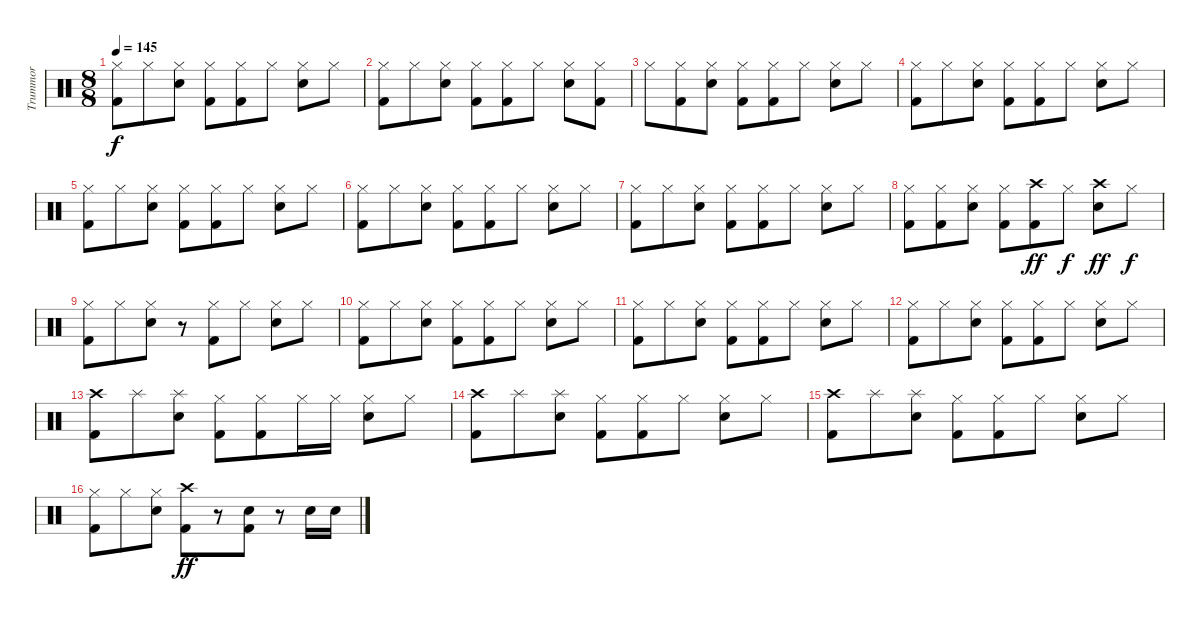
\track ("Trummor" "Trummor") {instrument percussion}
\staff {score}
\articulation defaults
\ts (8 8)
\tempo 145
\clef neutral
\ks c
("Kick (hit) 2" "Hi-Hat (closed)").8{dy f} "Hi-Hat (closed)".8 ("Snare (hit) 2" "Hi-Hat (closed)").8 ("Kick (hit) 2" "Hi-Hat (closed)").8 ("Kick (hit) 2" "Hi-Hat (closed)").8 "Hi-Hat (closed)".8 ("Snare (hit) 2" "Hi-Hat (closed)").8 "Hi-Hat (closed)".8 |
("Kick (hit) 2" "Hi-Hat (closed)").8 "Hi-Hat (closed)".8 ("Snare (hit) 2" "Hi-Hat (closed)").8 ("Kick (hit) 2" "Hi-Hat (closed)").8 ("Kick (hit) 2" "Hi-Hat (closed)").8 "Hi-Hat (closed)".8 ("Snare (hit) 2" "Hi-Hat (closed)").8 ("Kick (hit) 2" "Hi-Hat (closed)").8 |
"Hi-Hat (closed)".8 ("Kick (hit) 2" "Hi-Hat (closed)").8 ("Snare (hit) 2" "Hi-Hat (closed)").8 ("Kick (hit) 2" "Hi-Hat (closed)").8 ("Kick (hit) 2" "Hi-Hat (closed)").8 "Hi-Hat (closed)".8 ("Snare (hit) 2" "Hi-Hat (closed)").8 "Hi-Hat (closed)".8 |
("Kick (hit) 2" "Hi-Hat (closed)").8 "Hi-Hat (closed)".8 ("Snare (hit) 2" "Hi-Hat (closed)").8 ("Kick (hit) 2" "Hi-Hat (closed)").8 ("Kick (hit) 2" "Hi-Hat (closed)").8 "Hi-Hat (closed)".8 ("Snare (hit) 2" "Hi-Hat (closed)").8 "Hi-Hat (closed)".8 |
("Kick (hit) 2" "Hi-Hat (closed)").8 "Hi-Hat (closed)".8 ("Snare (hit) 2" "Hi-Hat (closed)").8 ("Kick (hit) 2" "Hi-Hat (closed)").8 ("Kick (hit) 2" "Hi-Hat (closed)").8 "Hi-Hat (closed)".8 ("Snare (hit) 2" "Hi-Hat (closed)").8 "Hi-Hat (closed)".8 |
("Kick (hit) 2" "Hi-Hat (closed)").8 "Hi-Hat (closed)".8 ("Snare (hit) 2" "Hi-Hat (closed)").8 ("Kick (hit) 2" "Hi-Hat (closed)").8 ("Kick (hit) 2" "Hi-Hat (closed)").8 "Hi-Hat (closed)".8 ("Snare (hit) 2" "Hi-Hat (closed)").8 "Hi-Hat (closed)".8 |
("Kick (hit) 2" "Hi-Hat (closed)").8 "Hi-Hat (closed)".8 ("Snare (hit) 2" "Hi-Hat (closed)").8 ("Kick (hit) 2" "Hi-Hat (closed)").8 ("Kick (hit) 2" "Hi-Hat (closed)").8 "Hi-Hat (closed)".8 ("Snare (hit) 2" "Hi-Hat (closed)").8 "Hi-Hat (closed)".8 |
("Kick (hit) 2" "Hi-Hat (closed)").8 ("Kick (hit) 2" "Hi-Hat (closed)").8 ("Snare (hit) 2" "Hi-Hat (closed)").8 ("Kick (hit) 2" "Hi-Hat (closed)").8 ("Kick (hit) 2" "Crash high (hit)").8{dy ff} "Hi-Hat (closed)".8{dy f} ("Snare (hit) 2" "Crash high (hit)").8{dy ff} "Hi-Hat (closed)".8{dy f} |
("Kick (hit) 2" "Hi-Hat (closed)").8 "Hi-Hat (closed)".8 ("Snare (hit) 2" "Hi-Hat (closed)").8 r.8 ("Kick (hit) 2" "Hi-Hat (closed)").8 "Hi-Hat (closed)".8 ("Snare (hit) 2" "Hi-Hat (closed)").8 "Hi-Hat (closed)".8 |
("Kick (hit) 2" "Hi-Hat (closed)").8 "Hi-Hat (closed)".8 ("Snare (hit) 2" "Hi-Hat (closed)").8 ("Kick (hit) 2" "Hi-Hat (closed)").8 ("Kick (hit) 2" "Hi-Hat (closed)").8 "Hi-Hat (closed)".8 ("Snare (hit) 2" "Hi-Hat (closed)").8 "Hi-Hat (closed)".8 |
("Kick (hit) 2" "Hi-Hat (closed)").8 "Hi-Hat (closed)".8 ("Snare (hit) 2" "Hi-Hat (closed)").8 ("Kick (hit) 2" "Hi-Hat (closed)").8 ("Kick (hit) 2" "Hi-Hat (closed)").8 "Hi-Hat (closed)".8 ("Snare (hit) 2" "Hi-Hat (closed)").8 "Hi-Hat (closed)".8 |
("Kick (hit) 2" "Hi-Hat (closed)").8 "Hi-Hat (closed)".8 ("Snare (hit) 2" "Hi-Hat (closed)").8 ("Kick (hit) 2" "Hi-Hat (closed)").8 ("Kick (hit) 2" "Hi-Hat (closed)").8 "Hi-Hat (closed)".8 ("Snare (hit) 2" "Hi-Hat (closed)").8 "Hi-Hat (closed)".8 |
("Kick (hit) 2" "Crash high (hit)").8 "Splash (hit)".8 ("Snare (hit) 2" "Splash (hit)").8 ("Kick (hit) 2" "Hi-Hat (closed)").8 ("Kick (hit) 2" "Hi-Hat (closed)").8 "Hi-Hat (closed)".16 "Hi-Hat (closed)".16 ("Snare (hit) 2" "Hi-Hat (closed)").8 "Hi-Hat (closed)".8 |
("Kick (hit) 2" "Crash high (hit)").8 "Splash (hit)".8 ("Snare (hit) 2" "Splash (hit)").8 ("Kick (hit) 2" "Hi-Hat (closed)").8 ("Kick (hit) 2" "Hi-Hat (closed)").8 "Hi-Hat (closed)".8 ("Snare (hit) 2" "Hi-Hat (closed)").8 "Hi-Hat (closed)".8 |
("Kick (hit) 2" "Crash high (hit)").8 "Splash (hit)".8 ("Snare (hit) 2" "Splash (hit)").8 ("Kick (hit) 2" "Hi-Hat (closed)").8 ("Kick (hit) 2" "Hi-Hat (closed)").8 "Hi-Hat (closed)".8 ("Snare (hit) 2" "Hi-Hat (closed)").8 "Hi-Hat (closed)".8 |
("Kick (hit) 2" "Hi-Hat (closed)").8 "Hi-Hat (closed)".8 ("Snare (hit) 2" "Hi-Hat (closed)").8 ("Kick (hit) 2" "Crash high (hit)").8{dy ff} r.8 ("Kick (hit) 2" "Snare (hit) 2").8 r.8 "Snare (hit) 2".16 "Snare (hit) 2".16
